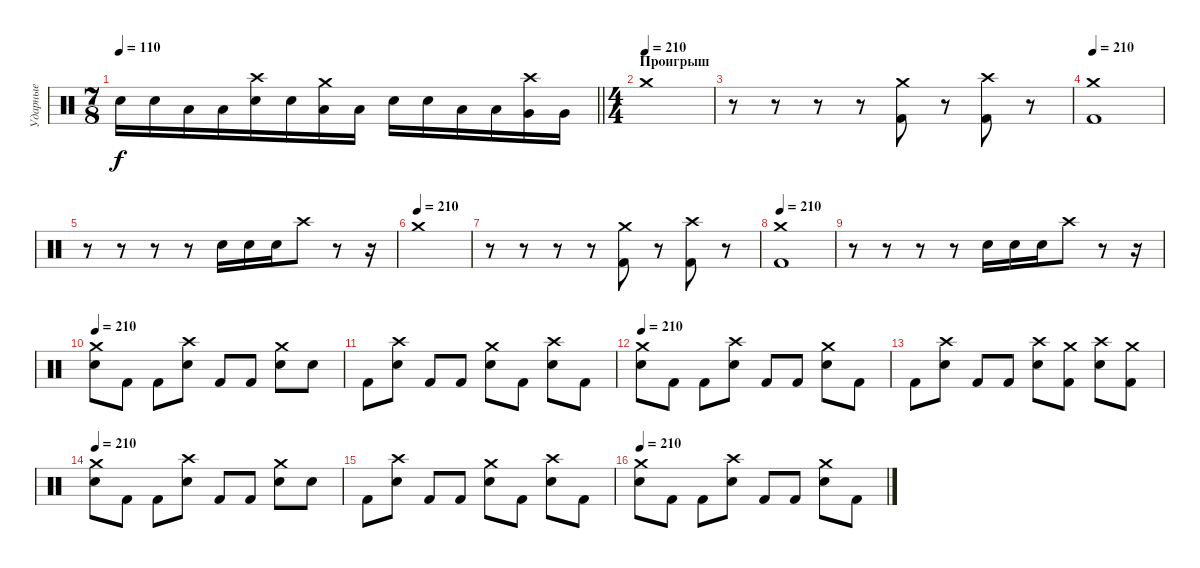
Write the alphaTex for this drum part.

\track ("Ударные" "Ударные") {instrument percussion}
\staff {score}
\articulation defaults
\ts (7 8)
\tempo 110
\clef neutral
\barLineRight lightlight
\ks c "Snare (hit) 2".16{dy f} "Snare (hit) 2".16 "Low Tom (hit)".16 "Low Tom (hit)".16
("Crash high (hit)" "Snare (hit) 2").16 "Snare (hit) 2".16 ("Crash medium (hit)" "Low Tom (hit)").16 "Low Tom (hit)".16 "Snare (hit) 2".16 "Snare (hit) 2".16 "Low Tom (hit)".16 "Low Tom (hit)".16 ("Crash high (hit)" "Very Low Tom (hit)").16 "Very Low Tom (hit)".16 |
\ts (4 4)
\section ("" "Проигрыш")
\tempo (210)
"Crash medium (hit)".1 |
r.8 r.8 r.8 r.8 ("Crash medium (hit)" "Kick (hit) 2").8 r.8 ("Crash high (hit)" "Kick (hit) 2").8 r.8 |
\tempo 210
("Kick (hit) 2" "Crash medium (hit)").1 |
r.8 r.8 r.8 r.8 "Electric Snare (hit)".16 "Electric Snare (hit)".16 "Electric Snare (hit)".16 "Crash high (hit)".8 r.8 r.16 |
\tempo (210)
"Crash medium (hit)".1 |
r.8 r.8 r.8 r.8 ("Crash medium (hit)" "Kick (hit) 2").8 r.8 ("Crash high (hit)" "Kick (hit) 2").8 r.8 |
\tempo 210
("Kick (hit) 2" "Crash medium (hit)").1 |
r.8 r.8 r.8 r.8 "Electric Snare (hit)".16 "Electric Snare (hit)".16 "Electric Snare (hit)".16 "Crash high (hit)".8 r.8 r.16 |
\tempo 210
("Snare (hit) 2" "Crash medium (hit)").8 "Kick (hit) 2".8 "Kick (hit) 2".8 ("Snare (hit) 2" "Crash high (hit)").8 "Kick (hit) 2".8 "Kick (hit) 2".8 ("Snare (hit) 2" "Crash medium (hit)").8 "Snare (hit) 2".8 |
"Kick (hit) 2".8 ("Snare (hit) 2" "Crash high (hit)").8 "Kick (hit) 2".8 "Kick (hit) 2".8 ("Snare (hit) 2" "Crash medium (hit)").8 "Kick (hit) 2".8 ("Snare (hit) 2" "Crash high (hit)").8 "Kick (hit) 2".8 |
\tempo 210
("Snare (hit) 2" "Crash medium (hit)").8 "Kick (hit) 2".8 "Kick (hit) 2".8 ("Snare (hit) 2" "Crash high (hit)").8 "Kick (hit) 2".8 "Kick (hit) 2".8 ("Snare (hit) 2" "Crash medium (hit)").8 "Kick (hit) 2".8 |
"Kick (hit) 2".8 ("Snare (hit) 2" "Crash high (hit)").8 "Kick (hit) 2".8 "Kick (hit) 2".8 ("Snare (hit) 2" "Crash high (hit)").8 ("Kick (hit) 2" "Crash medium (hit)").8 ("Snare (hit) 2" "Crash high (hit)").8 ("Kick (hit) 2" "Crash medium (hit)").8 |
\tempo 210
("Snare (hit) 2" "Crash medium (hit)").8 "Kick (hit) 2".8 "Kick (hit) 2".8 ("Snare (hit) 2" "Crash high (hit)").8 "Kick (hit) 2".8 "Kick (hit) 2".8 ("Snare (hit) 2" "Crash medium (hit)").8 "Snare (hit) 2".8 |
"Kick (hit) 2".8 ("Snare (hit) 2" "Crash high (hit)").8 "Kick (hit) 2".8 "Kick (hit) 2".8 ("Snare (hit) 2" "Crash medium (hit)").8 "Kick (hit) 2".8 ("Snare (hit) 2" "Crash high (hit)").8 "Kick (hit) 2".8 |
\tempo 210
("Snare (hit) 2" "Crash medium (hit)").8 "Kick (hit) 2".8 "Kick (hit) 2".8 ("Snare (hit) 2" "Crash high (hit)").8 "Kick (hit) 2".8 "Kick (hit) 2".8 ("Snare (hit) 2" "Crash medium (hit)").8 "Kick (hit) 2".8
